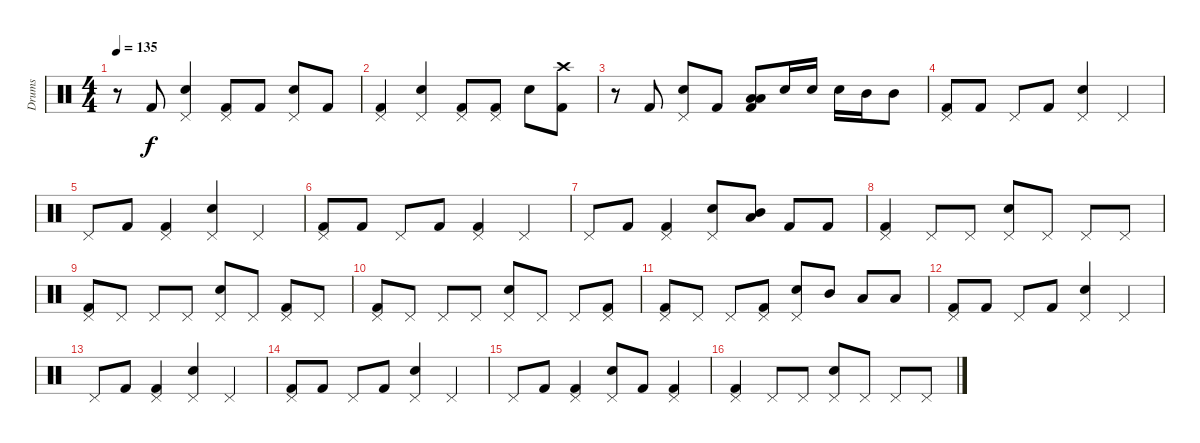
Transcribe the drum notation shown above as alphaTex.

\track ("Drums" "Drums") {instrument percussion}
\staff {score}
\articulation defaults
\ts (4 4)
\tempo 135
\clef neutral
\ks c
r.8{dy f} "Kick (hit) 2".8 ("Pedal Hi-Hat (hit)" "Electric Snare (hit)").4 ("Pedal Hi-Hat (hit)" "Kick (hit) 2").8 "Kick (hit) 2".8 ("Pedal Hi-Hat (hit)" "Electric Snare (hit)").8 "Kick (hit) 2".8 |
("Pedal Hi-Hat (hit)" "Kick (hit) 2").4 ("Pedal Hi-Hat (hit)" "Electric Snare (hit)").4 ("Pedal Hi-Hat (hit)" "Kick (hit) 2").8 ("Pedal Hi-Hat (hit)" "Kick (hit) 2").8 "Electric Snare (hit)".8 ("Crash high (hit)" "Kick (hit) 2").8 |
r.8 "Kick (hit) 2".8 ("Pedal Hi-Hat (hit)" "Electric Snare (hit)").8 "Kick (hit) 2".8 ("Low Tom (hit)" "Low Floor Tom (hit)" "Kick (hit) 2").8 "Electric Snare (hit)".16 "Electric Snare (hit)".16 "Electric Snare (hit)".16 "Mid Tom (hit)".16 "Mid Tom (hit)".8 |
("Pedal Hi-Hat (hit)" "Kick (hit) 2").8 "Kick (hit) 2".8 "Pedal Hi-Hat (hit)".8 "Kick (hit) 2".8 ("Pedal Hi-Hat (hit)" "Electric Snare (hit)").4 "Pedal Hi-Hat (hit)".4 |
"Pedal Hi-Hat (hit)".8 "Kick (hit) 2".8 ("Pedal Hi-Hat (hit)" "Kick (hit) 2").4 ("Pedal Hi-Hat (hit)" "Electric Snare (hit)").4 "Pedal Hi-Hat (hit)".4 |
("Pedal Hi-Hat (hit)" "Kick (hit) 2").8 "Kick (hit) 2".8 "Pedal Hi-Hat (hit)".8 "Kick (hit) 2".8 ("Pedal Hi-Hat (hit)" "Kick (hit) 2").4 "Pedal Hi-Hat (hit)".4 |
"Pedal Hi-Hat (hit)".8 "Kick (hit) 2".8 ("Pedal Hi-Hat (hit)" "Kick (hit) 2").4 ("Pedal Hi-Hat (hit)" "Electric Snare (hit)").8 ("Mid Tom (hit)" "Low Floor Tom (hit)").8 "Kick (hit) 2".8 "Kick (hit) 2".8 |
("Pedal Hi-Hat (hit)" "Kick (hit) 2").4 "Pedal Hi-Hat (hit)".8 "Pedal Hi-Hat (hit)".8 ("Pedal Hi-Hat (hit)" "Electric Snare (hit)").8 "Pedal Hi-Hat (hit)".8 "Pedal Hi-Hat (hit)".8 "Pedal Hi-Hat (hit)".8 |
("Pedal Hi-Hat (hit)" "Kick (hit) 2").8 "Pedal Hi-Hat (hit)".8 "Pedal Hi-Hat (hit)".8 "Pedal Hi-Hat (hit)".8 ("Pedal Hi-Hat (hit)" "Electric Snare (hit)").8 "Pedal Hi-Hat (hit)".8 ("Pedal Hi-Hat (hit)" "Kick (hit) 2").8 "Pedal Hi-Hat (hit)".8 |
("Pedal Hi-Hat (hit)" "Kick (hit) 2").8 "Pedal Hi-Hat (hit)".8 "Pedal Hi-Hat (hit)".8 "Pedal Hi-Hat (hit)".8 ("Pedal Hi-Hat (hit)" "Electric Snare (hit)").8 "Pedal Hi-Hat (hit)".8 "Pedal Hi-Hat (hit)".8 ("Pedal Hi-Hat (hit)" "Kick (hit) 2").8 |
("Pedal Hi-Hat (hit)" "Kick (hit) 2").8 "Pedal Hi-Hat (hit)".8 "Pedal Hi-Hat (hit)".8 ("Pedal Hi-Hat (hit)" "Kick (hit) 2").8 ("Pedal Hi-Hat (hit)" "Electric Snare (hit)").8 "Mid Tom (hit)".8 "Low Tom (hit)".8 "Low Tom (hit)".8 |
("Pedal Hi-Hat (hit)" "Kick (hit) 2").8 "Kick (hit) 2".8 "Pedal Hi-Hat (hit)".8 "Kick (hit) 2".8 ("Pedal Hi-Hat (hit)" "Electric Snare (hit)").4 "Pedal Hi-Hat (hit)".4 |
"Pedal Hi-Hat (hit)".8 "Kick (hit) 2".8 ("Pedal Hi-Hat (hit)" "Kick (hit) 2").4 ("Pedal Hi-Hat (hit)" "Electric Snare (hit)").4 "Pedal Hi-Hat (hit)".4 |
("Pedal Hi-Hat (hit)" "Kick (hit) 2").8 "Kick (hit) 2".8 "Pedal Hi-Hat (hit)".8 "Kick (hit) 2".8 ("Pedal Hi-Hat (hit)" "Electric Snare (hit)").4 "Pedal Hi-Hat (hit)".4 |
"Pedal Hi-Hat (hit)".8 "Kick (hit) 2".8 ("Pedal Hi-Hat (hit)" "Kick (hit) 2").4 ("Pedal Hi-Hat (hit)" "Electric Snare (hit)").8 "Kick (hit) 2".8 ("Pedal Hi-Hat (hit)" "Kick (hit) 2").4 |
("Pedal Hi-Hat (hit)" "Kick (hit) 2").4 "Pedal Hi-Hat (hit)".8 "Pedal Hi-Hat (hit)".8 ("Pedal Hi-Hat (hit)" "Electric Snare (hit)").8 "Pedal Hi-Hat (hit)".8 "Pedal Hi-Hat (hit)".8 "Pedal Hi-Hat (hit)".8
